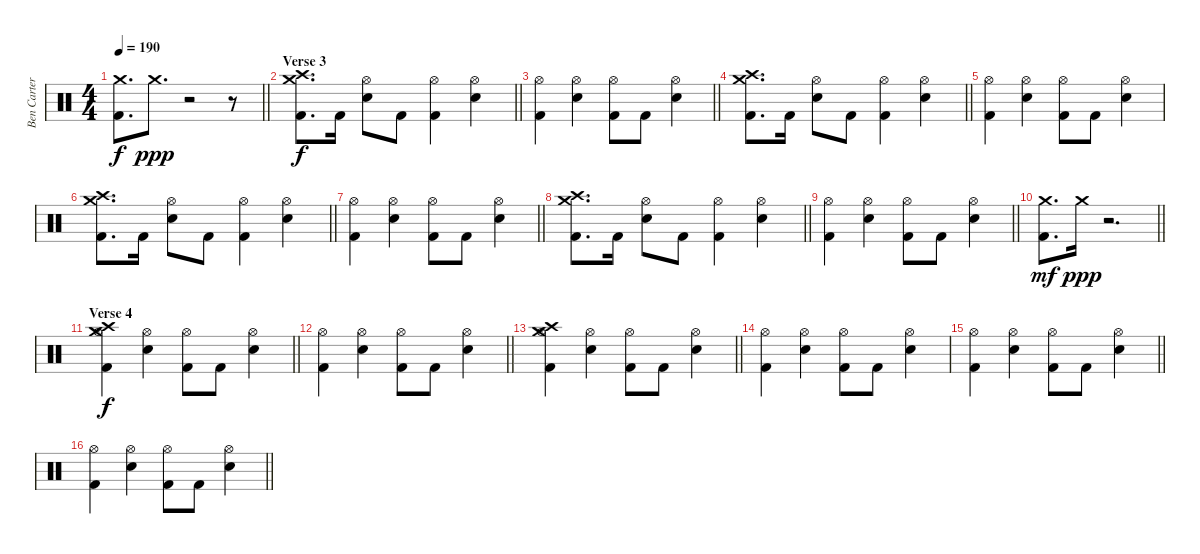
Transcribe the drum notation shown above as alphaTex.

\track ("Ben Carter" "Ben Carter") {instrument percussion}
\staff {score}
\articulation defaults
\ts (4 4)
\tempo 190
\clef neutral
\barLineRight lightlight
\ks c
("Crash medium (hit)" "Kick (hit) 2").8{d dy f} "Crash medium (hit)".8{d dy ppp} r.2 r.8 |
\section ("" "Verse 3")
\barLineRight lightlight
("Crash medium (hit)" "Crash high (hit)" "Kick (hit) 2").8{d dy f} "Kick (hit) 2".16 ("Hi-Hat (open)" "Snare (hit) 2").8 "Kick (hit) 2".8 ("Hi-Hat (open)" "Kick (hit) 2").4 ("Hi-Hat (open)" "Snare (hit) 2").4 |
\barLineRight lightlight
("Hi-Hat (open)" "Kick (hit) 2").4 ("Hi-Hat (open)" "Snare (hit) 2").4 ("Hi-Hat (open)" "Kick (hit) 2").8 "Kick (hit) 2".8 ("Hi-Hat (open)" "Snare (hit) 2").4 |
\barLineRight lightlight
("Crash medium (hit)" "Crash high (hit)" "Kick (hit) 2").8{d} "Kick (hit) 2".16 ("Hi-Hat (open)" "Snare (hit) 2").8 "Kick (hit) 2".8 ("Hi-Hat (open)" "Kick (hit) 2").4 ("Hi-Hat (open)" "Snare (hit) 2").4 |
("Hi-Hat (open)" "Kick (hit) 2").4 ("Hi-Hat (open)" "Snare (hit) 2").4 ("Hi-Hat (open)" "Kick (hit) 2").8 "Kick (hit) 2".8 ("Hi-Hat (open)" "Snare (hit) 2").4 |
\barLineRight lightlight
("Crash medium (hit)" "Crash high (hit)" "Kick (hit) 2").8{d} "Kick (hit) 2".16 ("Hi-Hat (open)" "Snare (hit) 2").8 "Kick (hit) 2".8 ("Hi-Hat (open)" "Kick (hit) 2").4 ("Hi-Hat (open)" "Snare (hit) 2").4 |
\barLineRight lightlight
("Hi-Hat (open)" "Kick (hit) 2").4 ("Hi-Hat (open)" "Snare (hit) 2").4 ("Hi-Hat (open)" "Kick (hit) 2").8 "Kick (hit) 2".8 ("Hi-Hat (open)" "Snare (hit) 2").4 |
\barLineRight lightlight
("Crash medium (hit)" "Crash high (hit)" "Kick (hit) 2").8{d} "Kick (hit) 2".16 ("Hi-Hat (open)" "Snare (hit) 2").8 "Kick (hit) 2".8 ("Hi-Hat (open)" "Kick (hit) 2").4 ("Hi-Hat (open)" "Snare (hit) 2").4 |
\barLineRight lightlight
("Hi-Hat (open)" "Kick (hit) 2").4 ("Hi-Hat (open)" "Snare (hit) 2").4 ("Hi-Hat (open)" "Kick (hit) 2").8 "Kick (hit) 2".8 ("Hi-Hat (open)" "Snare (hit) 2").4 |
\section ("" "")
\barLineRight lightlight
("Crash medium (hit)" "Kick (hit) 2").8{d dy mf} "Crash medium (hit)".16{dy ppp} r.2{d} |
\section ("" "Verse 4")
\barLineRight lightlight
("Crash medium (hit)" "Crash high (hit)" "Hi-Hat (open)" "Kick (hit) 2").4{dy f} ("Hi-Hat (open)" "Snare (hit) 2").4 ("Hi-Hat (open)" "Kick (hit) 2").8 "Kick (hit) 2".8 ("Hi-Hat (open)" "Snare (hit) 2").4 |
\barLineRight lightlight
("Hi-Hat (open)" "Kick (hit) 2").4 ("Hi-Hat (open)" "Snare (hit) 2").4 ("Hi-Hat (open)" "Kick (hit) 2").8 "Kick (hit) 2".8 ("Hi-Hat (open)" "Snare (hit) 2").4 |
\barLineRight lightlight
("Crash medium (hit)" "Crash high (hit)" "Hi-Hat (open)" "Kick (hit) 2").4 ("Hi-Hat (open)" "Snare (hit) 2").4 ("Hi-Hat (open)" "Kick (hit) 2").8 "Kick (hit) 2".8 ("Hi-Hat (open)" "Snare (hit) 2").4 |
("Hi-Hat (open)" "Kick (hit) 2").4 ("Hi-Hat (open)" "Snare (hit) 2").4 ("Hi-Hat (open)" "Kick (hit) 2").8 "Kick (hit) 2".8 ("Hi-Hat (open)" "Snare (hit) 2").4 |
\barLineRight lightlight
("Hi-Hat (open)" "Kick (hit) 2").4 ("Hi-Hat (open)" "Snare (hit) 2").4 ("Hi-Hat (open)" "Kick (hit) 2").8 "Kick (hit) 2".8 ("Hi-Hat (open)" "Snare (hit) 2").4 |
\barLineRight lightlight
("Hi-Hat (open)" "Kick (hit) 2").4 ("Hi-Hat (open)" "Snare (hit) 2").4 ("Hi-Hat (open)" "Kick (hit) 2").8 "Kick (hit) 2".8 ("Hi-Hat (open)" "Snare (hit) 2").4
